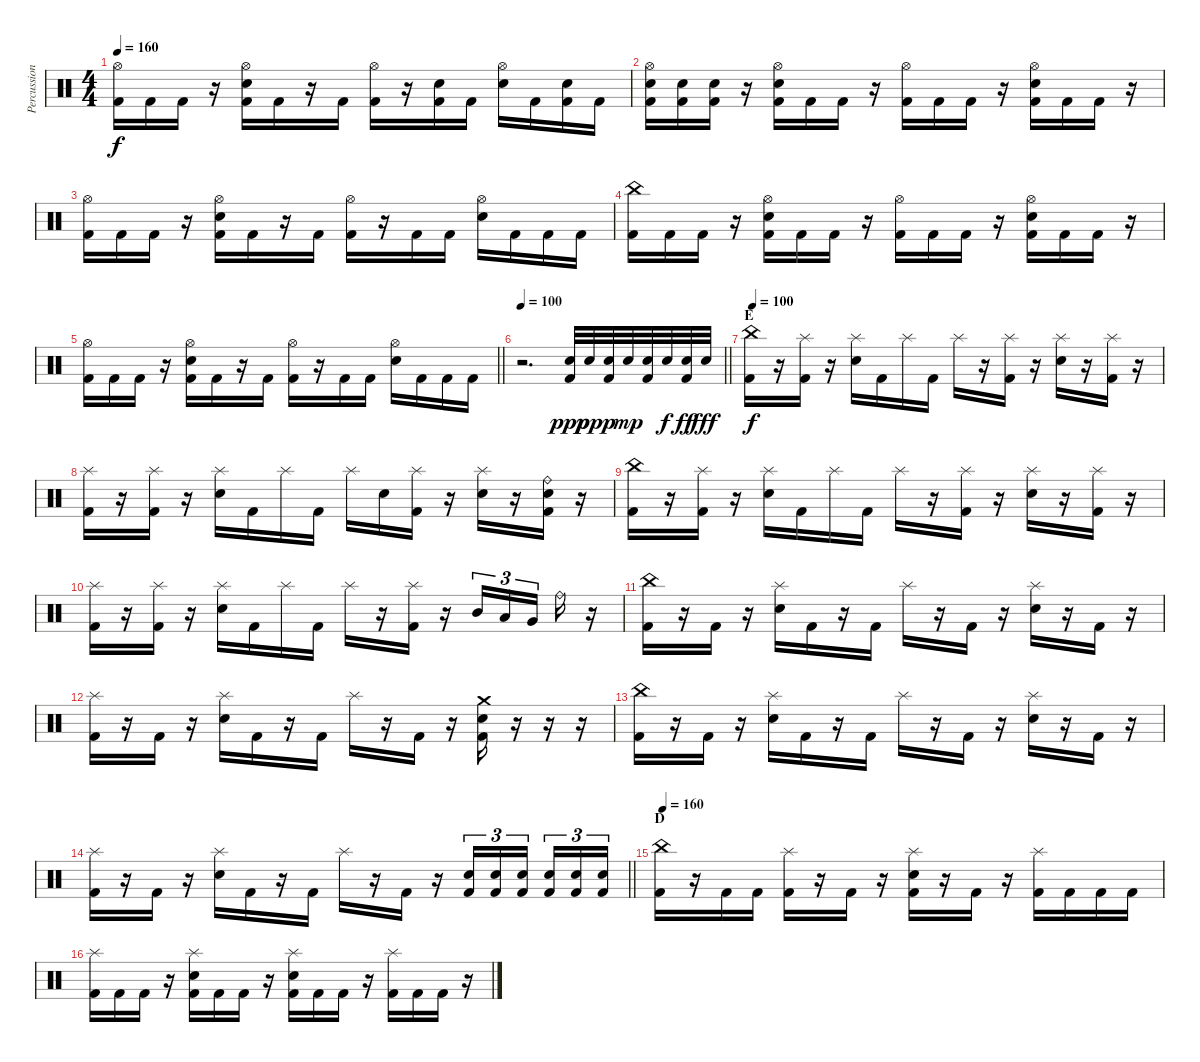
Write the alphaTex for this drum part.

\track ("Percussion" "Percussion") {instrument percussion}
\staff {score}
\articulation defaults
\ts (4 4)
\tempo 160
\clef neutral
\ks c
("Hi-Hat (open)" "Kick (hit) 2").16{dy f} "Kick (hit) 2".16 "Kick (hit) 2".16 r.16 ("Hi-Hat (open)" "Electric Snare (hit)" "Kick (hit) 2").16 "Kick (hit) 2".16 r.16 "Kick (hit) 2".16 ("Hi-Hat (open)" "Kick (hit) 2").16 r.16 ("Electric Snare (hit)" "Kick (hit) 2").16 "Kick (hit) 2".16 ("Hi-Hat (open)" "Electric Snare (hit)").16 "Kick (hit) 2".16 ("Electric Snare (hit)" "Kick (hit) 2").16 "Kick (hit) 2".16 |
("Hi-Hat (open)" "Electric Snare (hit)" "Kick (hit) 2").16 ("Electric Snare (hit)" "Kick (hit) 2").16 ("Electric Snare (hit)" "Kick (hit) 2").16 r.16 ("Hi-Hat (open)" "Electric Snare (hit)" "Kick (hit) 2").16 "Kick (hit) 2".16 "Kick (hit) 2".16 r.16 ("Hi-Hat (open)" "Kick (hit) 2").16 "Kick (hit) 2".16 "Kick (hit) 2".16 r.16 ("Hi-Hat (open)" "Electric Snare (hit)" "Kick (hit) 2").16 "Kick (hit) 2".16 "Kick (hit) 2".16 r.16 |
("Hi-Hat (open)" "Kick (hit) 2").16 "Kick (hit) 2".16 "Kick (hit) 2".16 r.16 ("Hi-Hat (open)" "Electric Snare (hit)" "Kick (hit) 2").16 "Kick (hit) 2".16 r.16 "Kick (hit) 2".16 ("Hi-Hat (open)" "Kick (hit) 2").16 r.16 "Kick (hit) 2".16 "Kick (hit) 2".16 ("Hi-Hat (open)" "Electric Snare (hit)").16 "Kick (hit) 2".16 "Kick (hit) 2".16 "Kick (hit) 2".16 |
("China (hit)" "Kick (hit) 2").16 "Kick (hit) 2".16 "Kick (hit) 2".16 r.16 ("Hi-Hat (open)" "Electric Snare (hit)" "Kick (hit) 2").16 "Kick (hit) 2".16 "Kick (hit) 2".16 r.16 ("Hi-Hat (open)" "Kick (hit) 2").16 "Kick (hit) 2".16 "Kick (hit) 2".16 r.16 ("Hi-Hat (open)" "Electric Snare (hit)" "Kick (hit) 2").16 "Kick (hit) 2".16 "Kick (hit) 2".16 r.16 |
\barLineRight lightlight
("Hi-Hat (open)" "Kick (hit) 2").16 "Kick (hit) 2".16 "Kick (hit) 2".16 r.16 ("Hi-Hat (open)" "Electric Snare (hit)" "Kick (hit) 2").16 "Kick (hit) 2".16 r.16 "Kick (hit) 2".16 ("Hi-Hat (open)" "Kick (hit) 2").16 r.16 "Kick (hit) 2".16 "Kick (hit) 2".16 ("Hi-Hat (open)" "Electric Snare (hit)").16 "Kick (hit) 2".16 "Kick (hit) 2".16 "Kick (hit) 2".16 |
\tempo 100
\barLineRight lightlight
r.2{d} ("Electric Snare (hit)" "Kick (hit) 2").32{dy ppp} "Electric Snare (hit)".32{dy pp} ("Electric Snare (hit)" "Kick (hit) 2").32{dy p} "Electric Snare (hit)".32{dy mp} ("Electric Snare (hit)" "Kick (hit) 2").32 "Electric Snare (hit)".32{dy f} ("Electric Snare (hit)" "Kick (hit) 2").32{dy ff} "Electric Snare (hit)".32{dy fff} |
\section ("" "E")
\tempo 100
("China (hit)" "Kick (hit) 2").16{dy f} r.16 ("Splash (hit)" "Kick (hit) 2").16 r.16 ("Splash (hit)" "Electric Snare (hit)").16 "Kick (hit) 2".16 "Splash (hit)".16 "Kick (hit) 2".16 "Splash (hit)".16 r.16 ("Splash (hit)" "Kick (hit) 2").16 r.16 ("Splash (hit)" "Electric Snare (hit)").16 r.16 ("Splash (hit)" "Kick (hit) 2").16 r.16 |
("Splash (hit)" "Kick (hit) 2").16 r.16 ("Splash (hit)" "Kick (hit) 2").16 r.16 ("Splash (hit)" "Electric Snare (hit)").16 "Kick (hit) 2".16 "Splash (hit)".16 "Kick (hit) 2".16 "Splash (hit)".16 "Electric Snare (hit)".16 ("Splash (hit)" "Kick (hit) 2").16 r.16 ("Splash (hit)" "Electric Snare (hit)").16 r.16 ("Ride (bell)" "Electric Snare (hit)" "Kick (hit) 2").16 r.16 |
("China (hit)" "Kick (hit) 2").16 r.16 ("Splash (hit)" "Kick (hit) 2").16 r.16 ("Splash (hit)" "Electric Snare (hit)").16 "Kick (hit) 2".16 "Splash (hit)".16 "Kick (hit) 2".16 "Splash (hit)".16 r.16 ("Splash (hit)" "Kick (hit) 2").16 r.16 ("Splash (hit)" "Electric Snare (hit)").16 r.16 ("Splash (hit)" "Kick (hit) 2").16 r.16 |
("Splash (hit)" "Kick (hit) 2").16 r.16 ("Splash (hit)" "Kick (hit) 2").16 r.16 ("Splash (hit)" "Electric Snare (hit)").16 "Kick (hit) 2".16 "Splash (hit)".16 "Kick (hit) 2".16 "Splash (hit)".16 r.16 ("Splash (hit)" "Kick (hit) 2").16 r.16 "Mid Tom (hit)".16{tu (3 2)} "Low Tom (hit)".16{tu (3 2)} "Very Low Tom (hit)".16{tu (3 2)} "Ride (bell)".16 r.16 |
("China (hit)" "Kick (hit) 2").16 r.16 "Kick (hit) 2".16 r.16 ("Splash (hit)" "Electric Snare (hit)").16 "Kick (hit) 2".16 r.16 "Kick (hit) 2".16 "Splash (hit)".16 r.16 "Kick (hit) 2".16 r.16 ("Splash (hit)" "Electric Snare (hit)").16 r.16 "Kick (hit) 2".16 r.16 |
("Splash (hit)" "Kick (hit) 2").16 r.16 "Kick (hit) 2".16 r.16 ("Splash (hit)" "Electric Snare (hit)").16 "Kick (hit) 2".16 r.16 "Kick (hit) 2".16 "Splash (hit)".16 r.16 "Kick (hit) 2".16 r.16 ("Crash medium (hit)" "Electric Snare (hit)" "Kick (hit) 2").16 r.16 r.16 r.16 |
("China (hit)" "Kick (hit) 2").16 r.16 "Kick (hit) 2".16 r.16 ("Splash (hit)" "Electric Snare (hit)").16 "Kick (hit) 2".16 r.16 "Kick (hit) 2".16 "Splash (hit)".16 r.16 "Kick (hit) 2".16 r.16 ("Splash (hit)" "Electric Snare (hit)").16 r.16 "Kick (hit) 2".16 r.16 |
\barLineRight lightlight
("Splash (hit)" "Kick (hit) 2").16 r.16 "Kick (hit) 2".16 r.16 ("Splash (hit)" "Electric Snare (hit)").16 "Kick (hit) 2".16 r.16 "Kick (hit) 2".16 "Splash (hit)".16 r.16 "Kick (hit) 2".16 r.16 ("Electric Snare (hit)" "Kick (hit) 2").16{tu (3 2)} ("Electric Snare (hit)" "Kick (hit) 2").16{tu (3 2)} ("Electric Snare (hit)" "Kick (hit) 2").16{tu (3 2)} ("Electric Snare (hit)" "Kick (hit) 2").16{tu (3 2)} ("Electric Snare (hit)" "Kick (hit) 2").16{tu (3 2)} ("Electric Snare (hit)" "Kick (hit) 2").16{tu (3 2)} |
\section ("" "D")
\tempo 160
("China (hit)" "Kick (hit) 2").16 r.16 "Kick (hit) 2".16 "Kick (hit) 2".16 ("Splash (hit)" "Kick (hit) 2").16 r.16 "Kick (hit) 2".16 r.16 ("Splash (hit)" "Electric Snare (hit)" "Kick (hit) 2").16 r.16 "Kick (hit) 2".16 r.16 ("Splash (hit)" "Kick (hit) 2").16 "Kick (hit) 2".16 "Kick (hit) 2".16 "Kick (hit) 2".16 |
("Splash (hit)" "Kick (hit) 2").16 "Kick (hit) 2".16 "Kick (hit) 2".16 r.16 ("Splash (hit)" "Electric Snare (hit)" "Kick (hit) 2").16 "Kick (hit) 2".16 "Kick (hit) 2".16 r.16 ("Splash (hit)" "Electric Snare (hit)" "Kick (hit) 2").16 "Kick (hit) 2".16 "Kick (hit) 2".16 r.16 ("Splash (hit)" "Kick (hit) 2").16 "Kick (hit) 2".16 "Kick (hit) 2".16 r.16
